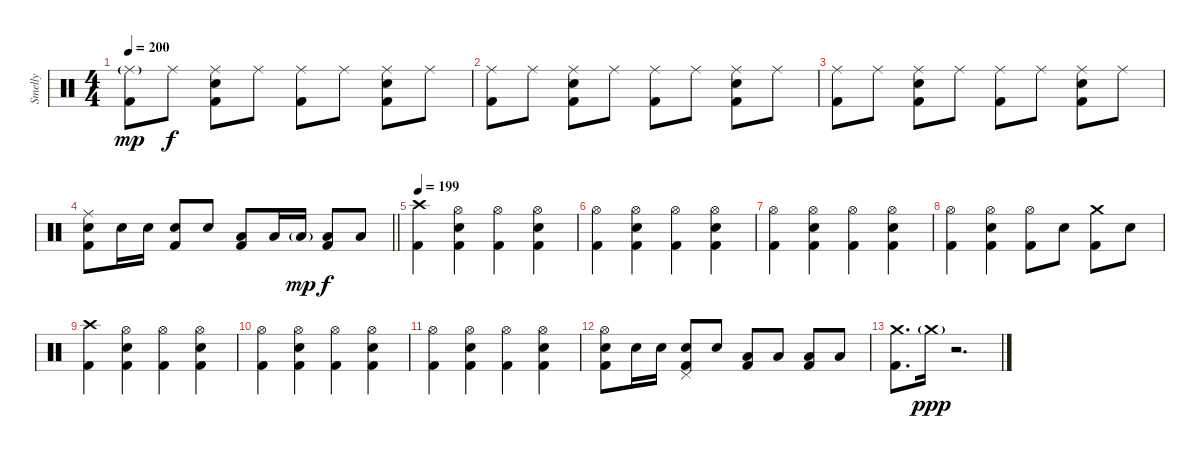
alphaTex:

\track ("Smelly" "Smelly") {instrument percussion}
\staff {score}
\articulation defaults
\ts (4 4)
\tempo 200
\clef neutral
\ks c
("Ride (middle)"{g} "Kick (hit) 2").8{dy mp} "Ride (middle)".8{dy f} ("Ride (middle)" "Electric Snare (hit)" "Kick (hit) 2").8 "Ride (middle)".8 ("Ride (middle)" "Kick (hit) 2").8 "Ride (middle)".8 ("Ride (middle)" "Electric Snare (hit)" "Kick (hit) 2").8 "Ride (middle)".8 |
("Ride (middle)" "Kick (hit) 2").8 "Ride (middle)".8 ("Ride (middle)" "Electric Snare (hit)" "Kick (hit) 2").8 "Ride (middle)".8 ("Ride (middle)" "Kick (hit) 2").8 "Ride (middle)".8 ("Ride (middle)" "Electric Snare (hit)" "Kick (hit) 2").8 "Ride (middle)".8 |
("Ride (middle)" "Kick (hit) 2").8 "Ride (middle)".8 ("Ride (middle)" "Electric Snare (hit)" "Kick (hit) 2").8 "Ride (middle)".8 ("Ride (middle)" "Kick (hit) 2").8 "Ride (middle)".8 ("Ride (middle)" "Electric Snare (hit)" "Kick (hit) 2").8 "Ride (middle)".8 |
\barLineRight lightlight
("Ride (middle)" "Electric Snare (hit)" "Kick (hit) 2").8 "Electric Snare (hit)".16 "Electric Snare (hit)".16 ("Electric Snare (hit)" "Kick (hit) 2").8 "Electric Snare (hit)".8 ("Low Tom (hit)" "Kick (hit) 2").8 "Low Tom (hit)".16 "Low Tom (hit)"{g}.16{dy mp} ("Low Floor Tom (hit)" "Kick (hit) 2").8{dy f} "Low Floor Tom (hit)".8 |
\section ("" "")
\tempo 199
("Crash high (hit)" "Kick (hit) 2").4 ("Hi-Hat (open)" "Electric Snare (hit)" "Kick (hit) 2").4 ("Hi-Hat (open)" "Kick (hit) 2").4 ("Hi-Hat (open)" "Electric Snare (hit)" "Kick (hit) 2").4 |
("Hi-Hat (open)" "Kick (hit) 2").4 ("Hi-Hat (open)" "Electric Snare (hit)" "Kick (hit) 2").4 ("Hi-Hat (open)" "Kick (hit) 2").4 ("Hi-Hat (open)" "Electric Snare (hit)" "Kick (hit) 2").4 |
("Hi-Hat (open)" "Kick (hit) 2").4 ("Hi-Hat (open)" "Electric Snare (hit)" "Kick (hit) 2").4 ("Hi-Hat (open)" "Kick (hit) 2").4 ("Hi-Hat (open)" "Electric Snare (hit)" "Kick (hit) 2").4 |
("Hi-Hat (open)" "Kick (hit) 2").4 ("Hi-Hat (open)" "Electric Snare (hit)" "Kick (hit) 2").4 ("Hi-Hat (open)" "Kick (hit) 2").8 "Electric Snare (hit)".8 ("Crash medium (hit)" "Kick (hit) 2").8 "Electric Snare (hit)".8 |
("Crash high (hit)" "Kick (hit) 2").4 ("Hi-Hat (open)" "Electric Snare (hit)" "Kick (hit) 2").4 ("Hi-Hat (open)" "Kick (hit) 2").4 ("Hi-Hat (open)" "Electric Snare (hit)" "Kick (hit) 2").4 |
("Hi-Hat (open)" "Kick (hit) 2").4 ("Hi-Hat (open)" "Electric Snare (hit)" "Kick (hit) 2").4 ("Hi-Hat (open)" "Kick (hit) 2").4 ("Hi-Hat (open)" "Electric Snare (hit)" "Kick (hit) 2").4 |
("Hi-Hat (open)" "Kick (hit) 2").4 ("Hi-Hat (open)" "Electric Snare (hit)" "Kick (hit) 2").4 ("Hi-Hat (open)" "Kick (hit) 2").4 ("Hi-Hat (open)" "Electric Snare (hit)" "Kick (hit) 2").4 |
("Hi-Hat (open)" "Electric Snare (hit)" "Kick (hit) 2").8 "Electric Snare (hit)".16 "Electric Snare (hit)".16 ("Pedal Hi-Hat (hit)" "Electric Snare (hit)" "Kick (hit) 2").8 "Electric Snare (hit)".8 ("Low Tom (hit)" "Kick (hit) 2").8 "Low Tom (hit)".8 ("Low Floor Tom (hit)" "Kick (hit) 2").8 "Low Floor Tom (hit)".8 |
("Crash medium (hit)" "Kick (hit) 2").8{d} "Crash medium (hit)"{g}.16{dy ppp} r.2{d}
